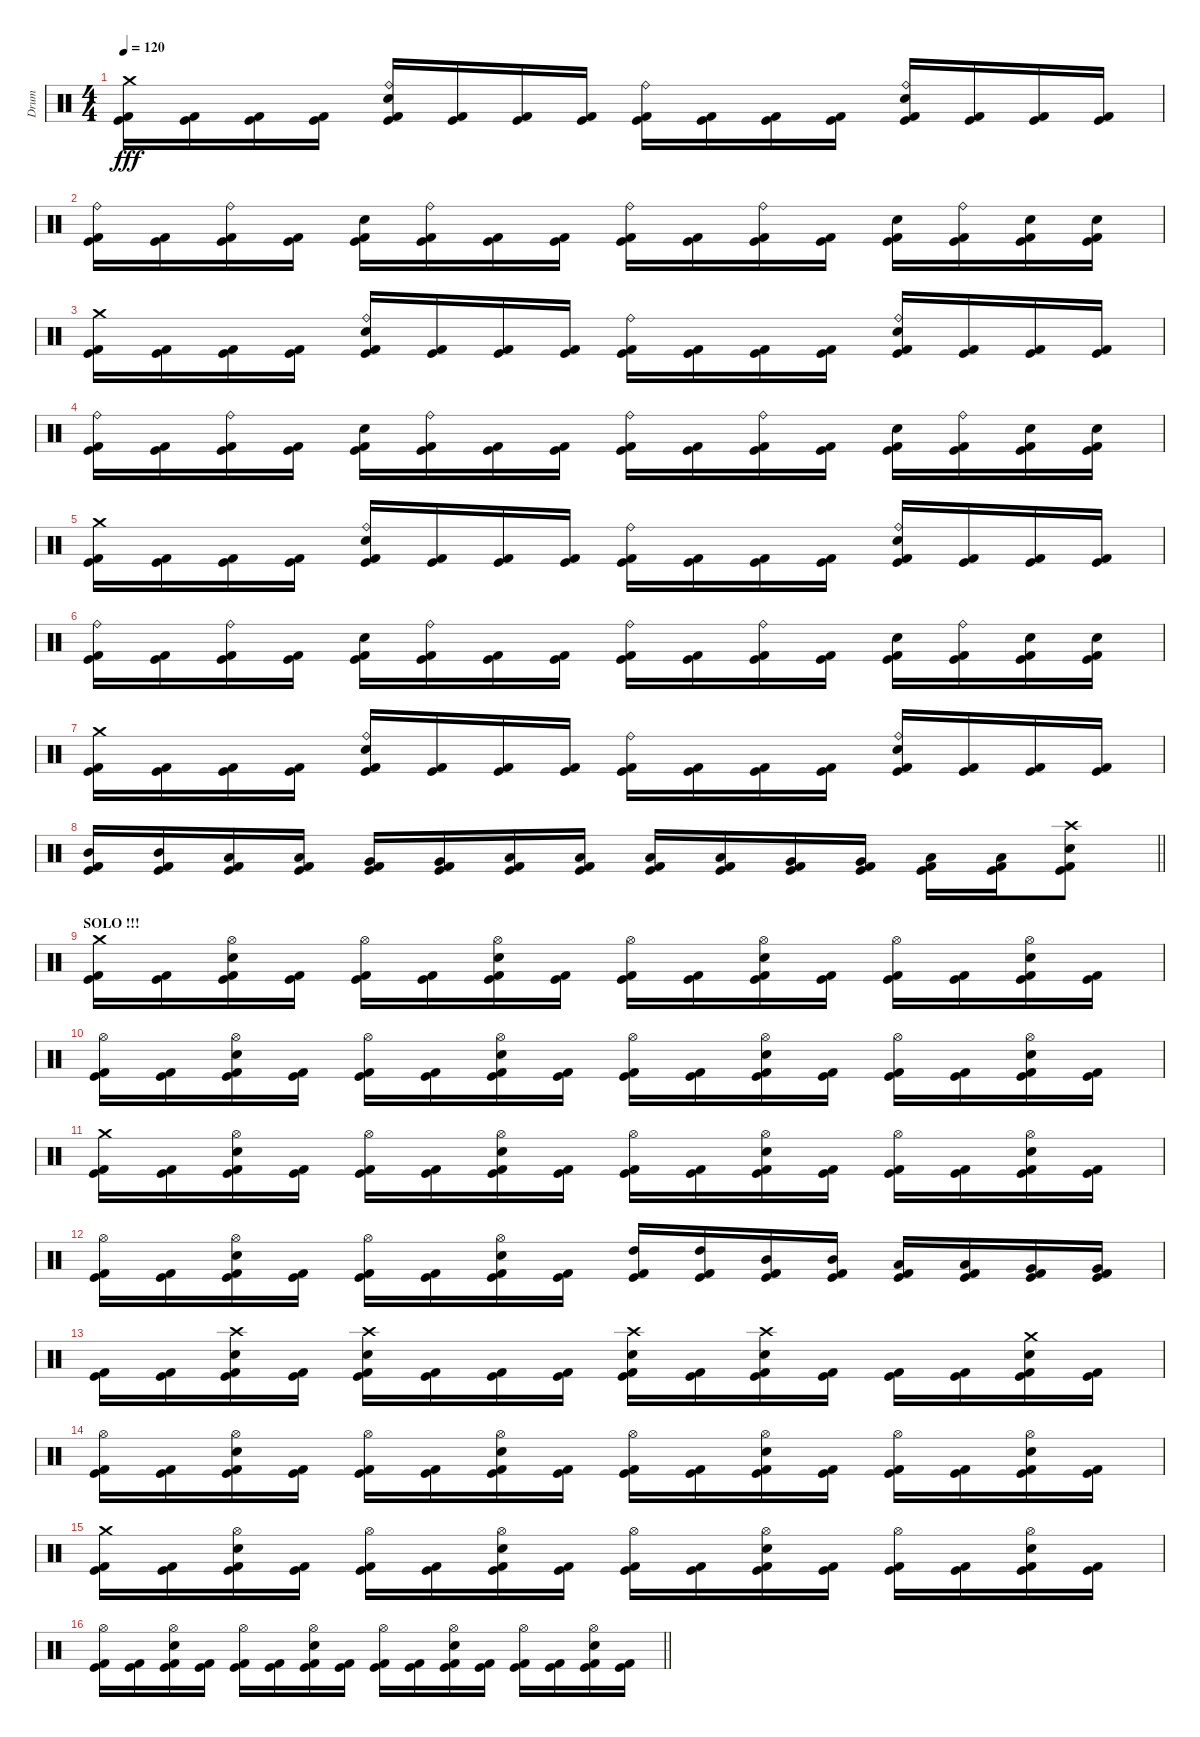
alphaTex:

\track ("Drum" "Drum") {instrument percussion}
\staff {score}
\articulation defaults
\ts (4 4)
\tempo 120
\clef neutral
\ks c
("Crash medium (hit)" "Kick (hit)" "Kick (hit) 2").16{dy fff} ("Kick (hit)" "Kick (hit) 2").16 ("Kick (hit)" "Kick (hit) 2").16 ("Kick (hit)" "Kick (hit) 2").16 ("Ride (bell)" "Electric Snare (hit)" "Kick (hit)" "Kick (hit) 2").16 ("Kick (hit)" "Kick (hit) 2").16 ("Kick (hit)" "Kick (hit) 2").16 ("Kick (hit)" "Kick (hit) 2").16 ("Ride (bell)" "Kick (hit)" "Kick (hit) 2").16 ("Kick (hit)" "Kick (hit) 2").16 ("Kick (hit)" "Kick (hit) 2").16 ("Kick (hit)" "Kick (hit) 2").16 ("Ride (bell)" "Electric Snare (hit)" "Kick (hit)" "Kick (hit) 2").16 ("Kick (hit)" "Kick (hit) 2").16 ("Kick (hit)" "Kick (hit) 2").16 ("Kick (hit)" "Kick (hit) 2").16 |
("Ride (bell)" "Kick (hit)" "Kick (hit) 2").16 ("Kick (hit)" "Kick (hit) 2").16 ("Ride (bell)" "Kick (hit)" "Kick (hit) 2").16 ("Kick (hit)" "Kick (hit) 2").16 ("Electric Snare (hit)" "Kick (hit)" "Kick (hit) 2").16 ("Ride (bell)" "Kick (hit)" "Kick (hit) 2").16 ("Kick (hit)" "Kick (hit) 2").16 ("Kick (hit)" "Kick (hit) 2").16 ("Ride (bell)" "Kick (hit)" "Kick (hit) 2").16 ("Kick (hit)" "Kick (hit) 2").16 ("Ride (bell)" "Kick (hit)" "Kick (hit) 2").16 ("Kick (hit)" "Kick (hit) 2").16 ("Electric Snare (hit)" "Kick (hit)" "Kick (hit) 2").16 ("Ride (bell)" "Kick (hit)" "Kick (hit) 2").16 ("Electric Snare (hit)" "Kick (hit)" "Kick (hit) 2").16 ("Electric Snare (hit)" "Kick (hit)" "Kick (hit) 2").16 |
("Crash medium (hit)" "Kick (hit)" "Kick (hit) 2").16 ("Kick (hit)" "Kick (hit) 2").16 ("Kick (hit)" "Kick (hit) 2").16 ("Kick (hit)" "Kick (hit) 2").16 ("Ride (bell)" "Electric Snare (hit)" "Kick (hit)" "Kick (hit) 2").16 ("Kick (hit)" "Kick (hit) 2").16 ("Kick (hit)" "Kick (hit) 2").16 ("Kick (hit)" "Kick (hit) 2").16 ("Ride (bell)" "Kick (hit)" "Kick (hit) 2").16 ("Kick (hit)" "Kick (hit) 2").16 ("Kick (hit)" "Kick (hit) 2").16 ("Kick (hit)" "Kick (hit) 2").16 ("Ride (bell)" "Electric Snare (hit)" "Kick (hit)" "Kick (hit) 2").16 ("Kick (hit)" "Kick (hit) 2").16 ("Kick (hit)" "Kick (hit) 2").16 ("Kick (hit)" "Kick (hit) 2").16 |
("Ride (bell)" "Kick (hit)" "Kick (hit) 2").16 ("Kick (hit)" "Kick (hit) 2").16 ("Ride (bell)" "Kick (hit)" "Kick (hit) 2").16 ("Kick (hit)" "Kick (hit) 2").16 ("Electric Snare (hit)" "Kick (hit)" "Kick (hit) 2").16 ("Ride (bell)" "Kick (hit)" "Kick (hit) 2").16 ("Kick (hit)" "Kick (hit) 2").16 ("Kick (hit)" "Kick (hit) 2").16 ("Ride (bell)" "Kick (hit)" "Kick (hit) 2").16 ("Kick (hit)" "Kick (hit) 2").16 ("Ride (bell)" "Kick (hit)" "Kick (hit) 2").16 ("Kick (hit)" "Kick (hit) 2").16 ("Electric Snare (hit)" "Kick (hit)" "Kick (hit) 2").16 ("Ride (bell)" "Kick (hit)" "Kick (hit) 2").16 ("Electric Snare (hit)" "Kick (hit)" "Kick (hit) 2").16 ("Electric Snare (hit)" "Kick (hit)" "Kick (hit) 2").16 |
("Crash medium (hit)" "Kick (hit)" "Kick (hit) 2").16 ("Kick (hit)" "Kick (hit) 2").16 ("Kick (hit)" "Kick (hit) 2").16 ("Kick (hit)" "Kick (hit) 2").16 ("Ride (bell)" "Electric Snare (hit)" "Kick (hit)" "Kick (hit) 2").16 ("Kick (hit)" "Kick (hit) 2").16 ("Kick (hit)" "Kick (hit) 2").16 ("Kick (hit)" "Kick (hit) 2").16 ("Ride (bell)" "Kick (hit)" "Kick (hit) 2").16 ("Kick (hit)" "Kick (hit) 2").16 ("Kick (hit)" "Kick (hit) 2").16 ("Kick (hit)" "Kick (hit) 2").16 ("Ride (bell)" "Electric Snare (hit)" "Kick (hit)" "Kick (hit) 2").16 ("Kick (hit)" "Kick (hit) 2").16 ("Kick (hit)" "Kick (hit) 2").16 ("Kick (hit)" "Kick (hit) 2").16 |
("Ride (bell)" "Kick (hit)" "Kick (hit) 2").16 ("Kick (hit)" "Kick (hit) 2").16 ("Ride (bell)" "Kick (hit)" "Kick (hit) 2").16 ("Kick (hit)" "Kick (hit) 2").16 ("Electric Snare (hit)" "Kick (hit)" "Kick (hit) 2").16 ("Ride (bell)" "Kick (hit)" "Kick (hit) 2").16 ("Kick (hit)" "Kick (hit) 2").16 ("Kick (hit)" "Kick (hit) 2").16 ("Ride (bell)" "Kick (hit)" "Kick (hit) 2").16 ("Kick (hit)" "Kick (hit) 2").16 ("Ride (bell)" "Kick (hit)" "Kick (hit) 2").16 ("Kick (hit)" "Kick (hit) 2").16 ("Electric Snare (hit)" "Kick (hit)" "Kick (hit) 2").16 ("Ride (bell)" "Kick (hit)" "Kick (hit) 2").16 ("Electric Snare (hit)" "Kick (hit)" "Kick (hit) 2").16 ("Electric Snare (hit)" "Kick (hit)" "Kick (hit) 2").16 |
("Crash medium (hit)" "Kick (hit)" "Kick (hit) 2").16 ("Kick (hit)" "Kick (hit) 2").16 ("Kick (hit)" "Kick (hit) 2").16 ("Kick (hit)" "Kick (hit) 2").16 ("Ride (bell)" "Electric Snare (hit)" "Kick (hit)" "Kick (hit) 2").16 ("Kick (hit)" "Kick (hit) 2").16 ("Kick (hit)" "Kick (hit) 2").16 ("Kick (hit)" "Kick (hit) 2").16 ("Ride (bell)" "Kick (hit)" "Kick (hit) 2").16 ("Kick (hit)" "Kick (hit) 2").16 ("Kick (hit)" "Kick (hit) 2").16 ("Kick (hit)" "Kick (hit) 2").16 ("Ride (bell)" "Electric Snare (hit)" "Kick (hit)" "Kick (hit) 2").16 ("Kick (hit)" "Kick (hit) 2").16 ("Kick (hit)" "Kick (hit) 2").16 ("Kick (hit)" "Kick (hit) 2").16 |
\barLineRight lightlight
("Mid Tom (hit)" "Kick (hit)" "Kick (hit) 2").16 ("Mid Tom (hit)" "Kick (hit)" "Kick (hit) 2").16 ("Low Tom (hit)" "Kick (hit)" "Kick (hit) 2").16 ("Low Tom (hit)" "Kick (hit)" "Kick (hit) 2").16 ("Very Low Tom (hit)" "Kick (hit)" "Kick (hit) 2").16 ("Very Low Tom (hit)" "Kick (hit)" "Kick (hit) 2").16 ("Low Floor Tom (hit)" "Kick (hit)" "Kick (hit) 2").16 ("Low Floor Tom (hit)" "Kick (hit)" "Kick (hit) 2").16 ("Low Tom (hit)" "Kick (hit)" "Kick (hit) 2").16 ("Low Tom (hit)" "Kick (hit)" "Kick (hit) 2").16 ("Very Low Tom (hit)" "Kick (hit)" "Kick (hit) 2").16 ("Very Low Tom (hit)" "Kick (hit)" "Kick (hit) 2").16 ("Low Floor Tom (hit)" "Kick (hit)" "Kick (hit) 2").16 ("Low Floor Tom (hit)" "Kick (hit)" "Kick (hit) 2").16 ("Crash high (hit)" "Electric Snare (hit)" "Kick (hit)" "Kick (hit) 2").8 |
\section ("" "SOLO !!!")
("Crash medium (hit)" "Kick (hit)" "Kick (hit) 2").16 ("Kick (hit)" "Kick (hit) 2").16 ("Hi-Hat (open)" "Electric Snare (hit)" "Kick (hit)" "Kick (hit) 2").16 ("Kick (hit)" "Kick (hit) 2").16 ("Hi-Hat (open)" "Kick (hit)" "Kick (hit) 2").16 ("Kick (hit)" "Kick (hit) 2").16 ("Hi-Hat (open)" "Electric Snare (hit)" "Kick (hit)" "Kick (hit) 2").16 ("Kick (hit)" "Kick (hit) 2").16 ("Hi-Hat (open)" "Kick (hit)" "Kick (hit) 2").16 ("Kick (hit)" "Kick (hit) 2").16 ("Hi-Hat (open)" "Electric Snare (hit)" "Kick (hit)" "Kick (hit) 2").16 ("Kick (hit)" "Kick (hit) 2").16 ("Hi-Hat (open)" "Kick (hit)" "Kick (hit) 2").16 ("Kick (hit)" "Kick (hit) 2").16 ("Hi-Hat (open)" "Electric Snare (hit)" "Kick (hit)" "Kick (hit) 2").16 ("Kick (hit)" "Kick (hit) 2").16 |
("Hi-Hat (open)" "Kick (hit)" "Kick (hit) 2").16 ("Kick (hit)" "Kick (hit) 2").16 ("Hi-Hat (open)" "Electric Snare (hit)" "Kick (hit)" "Kick (hit) 2").16 ("Kick (hit)" "Kick (hit) 2").16 ("Hi-Hat (open)" "Kick (hit)" "Kick (hit) 2").16 ("Kick (hit)" "Kick (hit) 2").16 ("Hi-Hat (open)" "Electric Snare (hit)" "Kick (hit)" "Kick (hit) 2").16 ("Kick (hit)" "Kick (hit) 2").16 ("Hi-Hat (open)" "Kick (hit)" "Kick (hit) 2").16 ("Kick (hit)" "Kick (hit) 2").16 ("Hi-Hat (open)" "Electric Snare (hit)" "Kick (hit)" "Kick (hit) 2").16 ("Kick (hit)" "Kick (hit) 2").16 ("Hi-Hat (open)" "Kick (hit)" "Kick (hit) 2").16 ("Kick (hit)" "Kick (hit) 2").16 ("Hi-Hat (open)" "Electric Snare (hit)" "Kick (hit)" "Kick (hit) 2").16 ("Kick (hit)" "Kick (hit) 2").16 |
("Crash medium (hit)" "Kick (hit)" "Kick (hit) 2").16 ("Kick (hit)" "Kick (hit) 2").16 ("Hi-Hat (open)" "Electric Snare (hit)" "Kick (hit)" "Kick (hit) 2").16 ("Kick (hit)" "Kick (hit) 2").16 ("Hi-Hat (open)" "Kick (hit)" "Kick (hit) 2").16 ("Kick (hit)" "Kick (hit) 2").16 ("Hi-Hat (open)" "Electric Snare (hit)" "Kick (hit)" "Kick (hit) 2").16 ("Kick (hit)" "Kick (hit) 2").16 ("Hi-Hat (open)" "Kick (hit)" "Kick (hit) 2").16 ("Kick (hit)" "Kick (hit) 2").16 ("Hi-Hat (open)" "Electric Snare (hit)" "Kick (hit)" "Kick (hit) 2").16 ("Kick (hit)" "Kick (hit) 2").16 ("Hi-Hat (open)" "Kick (hit)" "Kick (hit) 2").16 ("Kick (hit)" "Kick (hit) 2").16 ("Hi-Hat (open)" "Electric Snare (hit)" "Kick (hit)" "Kick (hit) 2").16 ("Kick (hit)" "Kick (hit) 2").16 |
("Hi-Hat (open)" "Kick (hit)" "Kick (hit) 2").16 ("Kick (hit)" "Kick (hit) 2").16 ("Hi-Hat (open)" "Electric Snare (hit)" "Kick (hit)" "Kick (hit) 2").16 ("Kick (hit)" "Kick (hit) 2").16 ("Hi-Hat (open)" "Kick (hit)" "Kick (hit) 2").16 ("Kick (hit)" "Kick (hit) 2").16 ("Hi-Hat (open)" "Electric Snare (hit)" "Kick (hit)" "Kick (hit) 2").16 ("Kick (hit)" "Kick (hit) 2").16 ("High Tom (hit)" "Kick (hit)" "Kick (hit) 2").16 ("High Tom (hit)" "Kick (hit)" "Kick (hit) 2").16 ("Mid Tom (hit)" "Kick (hit)" "Kick (hit) 2").16 ("Mid Tom (hit)" "Kick (hit)" "Kick (hit) 2").16 ("Low Tom (hit)" "Kick (hit)" "Kick (hit) 2").16 ("Low Tom (hit)" "Kick (hit)" "Kick (hit) 2").16 ("Very Low Tom (hit)" "Kick (hit)" "Kick (hit) 2").16 ("Very Low Tom (hit)" "Kick (hit)" "Kick (hit) 2").16 |
("Kick (hit)" "Kick (hit) 2").16 ("Kick (hit)" "Kick (hit) 2").16 ("Crash high (hit)" "Electric Snare (hit)" "Kick (hit)" "Kick (hit) 2").16 ("Kick (hit)" "Kick (hit) 2").16 ("Crash high (hit)" "Electric Snare (hit)" "Kick (hit)" "Kick (hit) 2").16 ("Kick (hit)" "Kick (hit) 2").16 ("Kick (hit)" "Kick (hit) 2").16 ("Kick (hit)" "Kick (hit) 2").16 ("Crash high (hit)" "Electric Snare (hit)" "Kick (hit)" "Kick (hit) 2").16 ("Kick (hit)" "Kick (hit) 2").16 ("Crash high (hit)" "Electric Snare (hit)" "Kick (hit)" "Kick (hit) 2").16 ("Kick (hit)" "Kick (hit) 2").16 ("Kick (hit)" "Kick (hit) 2").16 ("Kick (hit)" "Kick (hit) 2").16 ("Crash medium (hit)" "Electric Snare (hit)" "Kick (hit)" "Kick (hit) 2").16 ("Kick (hit)" "Kick (hit) 2").16 |
("Hi-Hat (open)" "Kick (hit)" "Kick (hit) 2").16 ("Kick (hit)" "Kick (hit) 2").16 ("Hi-Hat (open)" "Electric Snare (hit)" "Kick (hit)" "Kick (hit) 2").16 ("Kick (hit)" "Kick (hit) 2").16 ("Hi-Hat (open)" "Kick (hit)" "Kick (hit) 2").16 ("Kick (hit)" "Kick (hit) 2").16 ("Hi-Hat (open)" "Electric Snare (hit)" "Kick (hit)" "Kick (hit) 2").16 ("Kick (hit)" "Kick (hit) 2").16 ("Hi-Hat (open)" "Kick (hit)" "Kick (hit) 2").16 ("Kick (hit)" "Kick (hit) 2").16 ("Hi-Hat (open)" "Electric Snare (hit)" "Kick (hit)" "Kick (hit) 2").16 ("Kick (hit)" "Kick (hit) 2").16 ("Hi-Hat (open)" "Kick (hit)" "Kick (hit) 2").16 ("Kick (hit)" "Kick (hit) 2").16 ("Hi-Hat (open)" "Electric Snare (hit)" "Kick (hit)" "Kick (hit) 2").16 ("Kick (hit)" "Kick (hit) 2").16 |
("Crash medium (hit)" "Kick (hit)" "Kick (hit) 2").16 ("Kick (hit)" "Kick (hit) 2").16 ("Hi-Hat (open)" "Electric Snare (hit)" "Kick (hit)" "Kick (hit) 2").16 ("Kick (hit)" "Kick (hit) 2").16 ("Hi-Hat (open)" "Kick (hit)" "Kick (hit) 2").16 ("Kick (hit)" "Kick (hit) 2").16 ("Hi-Hat (open)" "Electric Snare (hit)" "Kick (hit)" "Kick (hit) 2").16 ("Kick (hit)" "Kick (hit) 2").16 ("Hi-Hat (open)" "Kick (hit)" "Kick (hit) 2").16 ("Kick (hit)" "Kick (hit) 2").16 ("Hi-Hat (open)" "Electric Snare (hit)" "Kick (hit)" "Kick (hit) 2").16 ("Kick (hit)" "Kick (hit) 2").16 ("Hi-Hat (open)" "Kick (hit)" "Kick (hit) 2").16 ("Kick (hit)" "Kick (hit) 2").16 ("Hi-Hat (open)" "Electric Snare (hit)" "Kick (hit)" "Kick (hit) 2").16 ("Kick (hit)" "Kick (hit) 2").16 |
\barLineRight lightlight
("Hi-Hat (open)" "Kick (hit)" "Kick (hit) 2").16 ("Kick (hit)" "Kick (hit) 2").16 ("Hi-Hat (open)" "Electric Snare (hit)" "Kick (hit)" "Kick (hit) 2").16 ("Kick (hit)" "Kick (hit) 2").16 ("Hi-Hat (open)" "Kick (hit)" "Kick (hit) 2").16 ("Kick (hit)" "Kick (hit) 2").16 ("Hi-Hat (open)" "Electric Snare (hit)" "Kick (hit)" "Kick (hit) 2").16 ("Kick (hit)" "Kick (hit) 2").16 ("Hi-Hat (open)" "Kick (hit)" "Kick (hit) 2").16 ("Kick (hit)" "Kick (hit) 2").16 ("Hi-Hat (open)" "Electric Snare (hit)" "Kick (hit)" "Kick (hit) 2").16 ("Kick (hit)" "Kick (hit) 2").16 ("Hi-Hat (open)" "Kick (hit)" "Kick (hit) 2").16 ("Kick (hit)" "Kick (hit) 2").16 ("Hi-Hat (open)" "Electric Snare (hit)" "Kick (hit)" "Kick (hit) 2").16 ("Kick (hit)" "Kick (hit) 2").16
